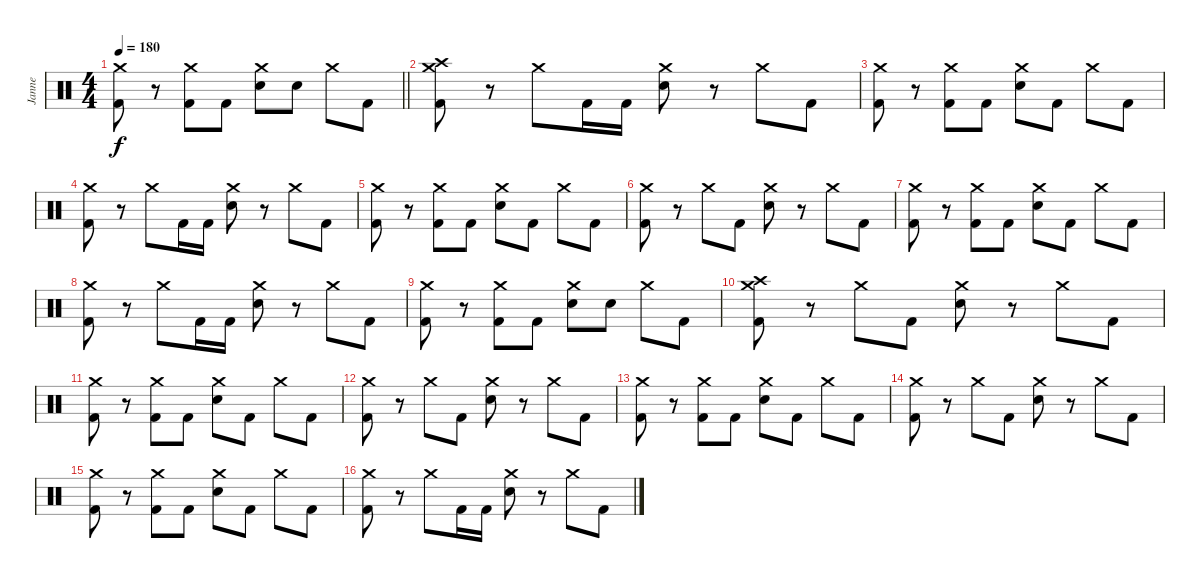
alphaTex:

\track ("Janne" "Janne") {instrument percussion}
\staff {score}
\articulation defaults
\ts (4 4)
\tempo 180
\clef neutral
\barLineRight lightlight
\ks c
("Crash medium (hit)" "Kick (hit) 2").8{dy f} r.8 ("Crash medium (hit)" "Kick (hit) 2").8 "Kick (hit) 2".8 ("Crash medium (hit)" "Electric Snare (hit)").8 "Electric Snare (hit)".8 "Crash medium (hit)".8 "Kick (hit) 2".8 |
("Crash medium (hit)" "Crash high (hit)" "Kick (hit) 2").8{volume 8} r.8 "Crash medium (hit)".8 "Kick (hit) 2".16 "Kick (hit) 2".16 ("Crash medium (hit)" "Electric Snare (hit)").8 r.8 "Crash medium (hit)".8 "Kick (hit) 2".8 |
("Crash medium (hit)" "Kick (hit) 2").8 r.8 ("Crash medium (hit)" "Kick (hit) 2").8 "Kick (hit) 2".8 ("Crash medium (hit)" "Electric Snare (hit)").8 "Kick (hit) 2".8 "Crash medium (hit)".8 "Kick (hit) 2".8 |
("Crash medium (hit)" "Kick (hit) 2").8 r.8 "Crash medium (hit)".8 "Kick (hit) 2".16 "Kick (hit) 2".16 ("Crash medium (hit)" "Electric Snare (hit)").8 r.8 "Crash medium (hit)".8 "Kick (hit) 2".8 |
("Crash medium (hit)" "Kick (hit) 2").8 r.8 ("Crash medium (hit)" "Kick (hit) 2").8 "Kick (hit) 2".8 ("Crash medium (hit)" "Electric Snare (hit)").8 "Kick (hit) 2".8 "Crash medium (hit)".8 "Kick (hit) 2".8 |
("Crash medium (hit)" "Kick (hit) 2").8{volume 6} r.8 "Crash medium (hit)".8 "Kick (hit) 2".8 ("Crash medium (hit)" "Electric Snare (hit)").8 r.8 "Crash medium (hit)".8 "Kick (hit) 2".8 |
("Crash medium (hit)" "Kick (hit) 2").8 r.8 ("Crash medium (hit)" "Kick (hit) 2").8 "Kick (hit) 2".8 ("Crash medium (hit)" "Electric Snare (hit)").8 "Kick (hit) 2".8 "Crash medium (hit)".8 "Kick (hit) 2".8 |
("Crash medium (hit)" "Kick (hit) 2").8 r.8 "Crash medium (hit)".8 "Kick (hit) 2".16 "Kick (hit) 2".16 ("Crash medium (hit)" "Electric Snare (hit)").8 r.8 "Crash medium (hit)".8 "Kick (hit) 2".8 |
("Crash medium (hit)" "Kick (hit) 2").8 r.8 ("Crash medium (hit)" "Kick (hit) 2").8 "Kick (hit) 2".8 ("Crash medium (hit)" "Electric Snare (hit)").8 "Electric Snare (hit)".8 "Crash medium (hit)".8 "Kick (hit) 2".8 |
("Crash medium (hit)" "Crash high (hit)" "Kick (hit) 2").8{volume 5} r.8 "Crash medium (hit)".8 "Kick (hit) 2".8 ("Crash medium (hit)" "Electric Snare (hit)").8 r.8 "Crash medium (hit)".8 "Kick (hit) 2".8 |
("Crash medium (hit)" "Kick (hit) 2").8 r.8 ("Crash medium (hit)" "Kick (hit) 2").8 "Kick (hit) 2".8 ("Crash medium (hit)" "Electric Snare (hit)").8 "Kick (hit) 2".8 "Crash medium (hit)".8 "Kick (hit) 2".8 |
("Crash medium (hit)" "Kick (hit) 2").8 r.8 "Crash medium (hit)".8 "Kick (hit) 2".8 ("Crash medium (hit)" "Electric Snare (hit)").8 r.8 "Crash medium (hit)".8 "Kick (hit) 2".8 |
("Crash medium (hit)" "Kick (hit) 2").8 r.8 ("Crash medium (hit)" "Kick (hit) 2").8 "Kick (hit) 2".8 ("Crash medium (hit)" "Electric Snare (hit)").8 "Kick (hit) 2".8 "Crash medium (hit)".8 "Kick (hit) 2".8 |
("Crash medium (hit)" "Kick (hit) 2").8{volume 4} r.8 "Crash medium (hit)".8 "Kick (hit) 2".8 ("Crash medium (hit)" "Electric Snare (hit)").8 r.8 "Crash medium (hit)".8 "Kick (hit) 2".8 |
("Crash medium (hit)" "Kick (hit) 2").8 r.8 ("Crash medium (hit)" "Kick (hit) 2").8 "Kick (hit) 2".8 ("Crash medium (hit)" "Electric Snare (hit)").8 "Kick (hit) 2".8 "Crash medium (hit)".8 "Kick (hit) 2".8 |
("Crash medium (hit)" "Kick (hit) 2").8 r.8 "Crash medium (hit)".8 "Kick (hit) 2".16 "Kick (hit) 2".16 ("Crash medium (hit)" "Electric Snare (hit)").8 r.8 "Crash medium (hit)".8 "Kick (hit) 2".8
